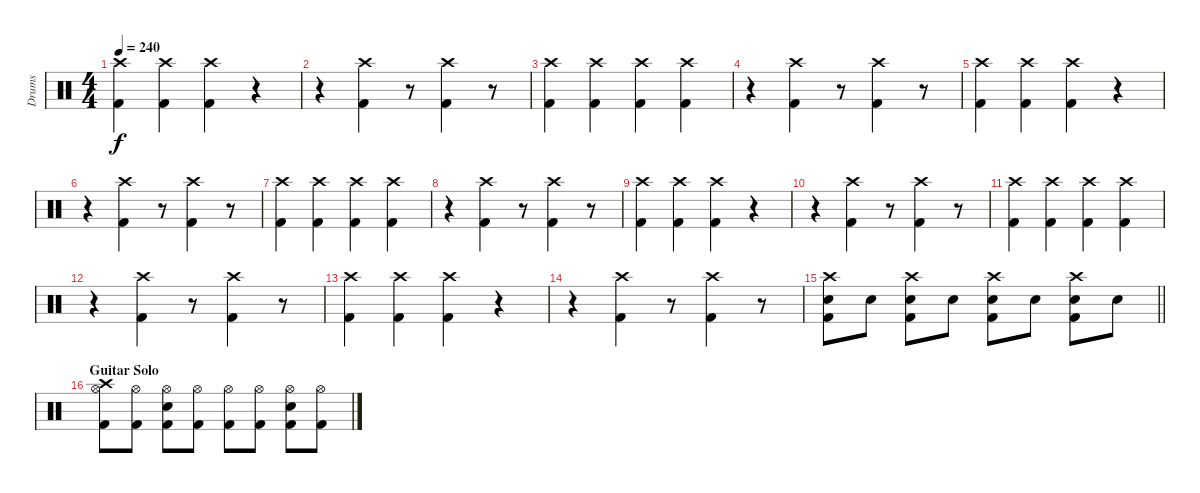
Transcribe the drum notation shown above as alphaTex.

\track ("Drums" "Drums") {instrument percussion}
\staff {score}
\articulation defaults
\ts (4 4)
\tempo 240
\clef neutral
\ks c
("Crash high (hit)" "Kick (hit) 2").4{dy f} ("Crash high (hit)" "Kick (hit) 2").4 ("Crash high (hit)" "Kick (hit) 2").4 r.4 |
r.4 ("Crash high (hit)" "Kick (hit) 2").4 r.8 ("Crash high (hit)" "Kick (hit) 2").4 r.8 |
("Crash high (hit)" "Kick (hit) 2").4 ("Crash high (hit)" "Kick (hit) 2").4 ("Crash high (hit)" "Kick (hit) 2").4 ("Crash high (hit)" "Kick (hit) 2").4 |
r.4 ("Crash high (hit)" "Kick (hit) 2").4 r.8 ("Crash high (hit)" "Kick (hit) 2").4 r.8 |
("Crash high (hit)" "Kick (hit) 2").4 ("Crash high (hit)" "Kick (hit) 2").4 ("Crash high (hit)" "Kick (hit) 2").4 r.4 |
r.4 ("Crash high (hit)" "Kick (hit) 2").4 r.8 ("Crash high (hit)" "Kick (hit) 2").4 r.8 |
("Crash high (hit)" "Kick (hit) 2").4 ("Crash high (hit)" "Kick (hit) 2").4 ("Crash high (hit)" "Kick (hit) 2").4 ("Crash high (hit)" "Kick (hit) 2").4 |
r.4 ("Crash high (hit)" "Kick (hit) 2").4 r.8 ("Crash high (hit)" "Kick (hit) 2").4 r.8 |
("Crash high (hit)" "Kick (hit) 2").4 ("Crash high (hit)" "Kick (hit) 2").4 ("Crash high (hit)" "Kick (hit) 2").4 r.4 |
r.4 ("Crash high (hit)" "Kick (hit) 2").4 r.8 ("Crash high (hit)" "Kick (hit) 2").4 r.8 |
("Crash high (hit)" "Kick (hit) 2").4 ("Crash high (hit)" "Kick (hit) 2").4 ("Crash high (hit)" "Kick (hit) 2").4 ("Crash high (hit)" "Kick (hit) 2").4 |
r.4 ("Crash high (hit)" "Kick (hit) 2").4 r.8 ("Crash high (hit)" "Kick (hit) 2").4 r.8 |
("Crash high (hit)" "Kick (hit) 2").4 ("Crash high (hit)" "Kick (hit) 2").4 ("Crash high (hit)" "Kick (hit) 2").4 r.4 |
r.4 ("Crash high (hit)" "Kick (hit) 2").4 r.8 ("Crash high (hit)" "Kick (hit) 2").4 r.8 |
\barLineRight lightlight
("Crash high (hit)" "Snare (hit) 2" "Kick (hit) 2").8 "Snare (hit) 2".8 ("Crash high (hit)" "Snare (hit) 2" "Kick (hit) 2").8 "Snare (hit) 2".8 ("Crash high (hit)" "Snare (hit) 2" "Kick (hit) 2").8 "Snare (hit) 2".8 ("Crash high (hit)" "Snare (hit) 2" "Kick (hit) 2").8 "Snare (hit) 2".8 |
\section ("" "Guitar Solo")
("Kick (hit) 2" "Hi-Hat (open)" "Crash high (hit)").8 ("Kick (hit) 2" "Hi-Hat (open)").8 ("Kick (hit) 2" "Snare (hit) 2" "Hi-Hat (open)").8 ("Kick (hit) 2" "Hi-Hat (open)").8 ("Kick (hit) 2" "Hi-Hat (open)").8 ("Kick (hit) 2" "Hi-Hat (open)").8 ("Kick (hit) 2" "Snare (hit) 2" "Hi-Hat (open)").8 ("Kick (hit) 2" "Hi-Hat (open)").8
